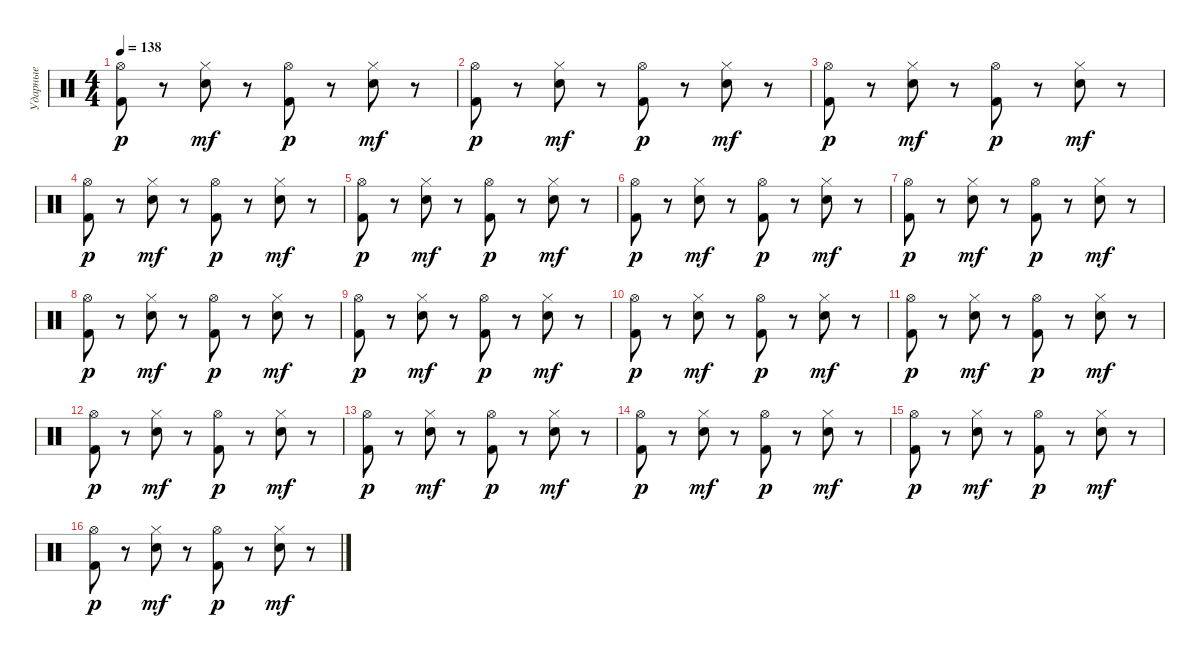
\track ("Ударные" "Ударные") {instrument percussion}
\staff {score}
\articulation defaults
\ts (4 4)
\tempo 138
\clef neutral
\ks c
("Hi-Hat (open)" "Kick (hit) 2").8{dy p} r.8 ("Hi-Hat (closed)" "Snare (hit) 2").8{dy mf} r.8 ("Hi-Hat (open)" "Kick (hit) 2").8{dy p} r.8 ("Hi-Hat (closed)" "Snare (hit) 2").8{dy mf} r.8 |
("Hi-Hat (open)" "Kick (hit) 2").8{dy p} r.8 ("Hi-Hat (closed)" "Snare (hit) 2").8{dy mf} r.8 ("Hi-Hat (open)" "Kick (hit) 2").8{dy p} r.8 ("Hi-Hat (closed)" "Snare (hit) 2").8{dy mf} r.8 |
("Hi-Hat (open)" "Kick (hit) 2").8{dy p} r.8 ("Hi-Hat (closed)" "Snare (hit) 2").8{dy mf} r.8 ("Hi-Hat (open)" "Kick (hit) 2").8{dy p} r.8 ("Hi-Hat (closed)" "Snare (hit) 2").8{dy mf} r.8 |
("Hi-Hat (open)" "Kick (hit) 2").8{dy p} r.8 ("Hi-Hat (closed)" "Snare (hit) 2").8{dy mf} r.8 ("Hi-Hat (open)" "Kick (hit) 2").8{dy p} r.8 ("Hi-Hat (closed)" "Snare (hit) 2").8{dy mf} r.8 |
("Hi-Hat (open)" "Kick (hit) 2").8{dy p} r.8 ("Hi-Hat (closed)" "Snare (hit) 2").8{dy mf} r.8 ("Hi-Hat (open)" "Kick (hit) 2").8{dy p} r.8 ("Hi-Hat (closed)" "Snare (hit) 2").8{dy mf} r.8 |
("Hi-Hat (open)" "Kick (hit) 2").8{dy p} r.8 ("Hi-Hat (closed)" "Snare (hit) 2").8{dy mf} r.8 ("Hi-Hat (open)" "Kick (hit) 2").8{dy p} r.8 ("Hi-Hat (closed)" "Snare (hit) 2").8{dy mf} r.8 |
("Hi-Hat (open)" "Kick (hit) 2").8{dy p} r.8 ("Hi-Hat (closed)" "Snare (hit) 2").8{dy mf} r.8 ("Hi-Hat (open)" "Kick (hit) 2").8{dy p} r.8 ("Hi-Hat (closed)" "Snare (hit) 2").8{dy mf} r.8 |
("Hi-Hat (open)" "Kick (hit) 2").8{dy p} r.8 ("Hi-Hat (closed)" "Snare (hit) 2").8{dy mf} r.8 ("Hi-Hat (open)" "Kick (hit) 2").8{dy p} r.8 ("Hi-Hat (closed)" "Snare (hit) 2").8{dy mf} r.8 |
("Hi-Hat (open)" "Kick (hit) 2").8{dy p} r.8 ("Hi-Hat (closed)" "Snare (hit) 2").8{dy mf} r.8 ("Hi-Hat (open)" "Kick (hit) 2").8{dy p} r.8 ("Hi-Hat (closed)" "Snare (hit) 2").8{dy mf} r.8 |
("Hi-Hat (open)" "Kick (hit) 2").8{dy p} r.8 ("Hi-Hat (closed)" "Snare (hit) 2").8{dy mf} r.8 ("Hi-Hat (open)" "Kick (hit) 2").8{dy p} r.8 ("Hi-Hat (closed)" "Snare (hit) 2").8{dy mf} r.8 |
("Hi-Hat (open)" "Kick (hit) 2").8{dy p} r.8 ("Hi-Hat (closed)" "Snare (hit) 2").8{dy mf} r.8 ("Hi-Hat (open)" "Kick (hit) 2").8{dy p} r.8 ("Hi-Hat (closed)" "Snare (hit) 2").8{dy mf} r.8 |
("Hi-Hat (open)" "Kick (hit) 2").8{dy p} r.8 ("Hi-Hat (closed)" "Snare (hit) 2").8{dy mf} r.8 ("Hi-Hat (open)" "Kick (hit) 2").8{dy p} r.8 ("Hi-Hat (closed)" "Snare (hit) 2").8{dy mf} r.8 |
("Hi-Hat (open)" "Kick (hit) 2").8{dy p} r.8 ("Hi-Hat (closed)" "Snare (hit) 2").8{dy mf} r.8 ("Hi-Hat (open)" "Kick (hit) 2").8{dy p} r.8 ("Hi-Hat (closed)" "Snare (hit) 2").8{dy mf} r.8 |
("Hi-Hat (open)" "Kick (hit) 2").8{dy p} r.8 ("Hi-Hat (closed)" "Snare (hit) 2").8{dy mf} r.8 ("Hi-Hat (open)" "Kick (hit) 2").8{dy p} r.8 ("Hi-Hat (closed)" "Snare (hit) 2").8{dy mf} r.8 |
("Hi-Hat (open)" "Kick (hit) 2").8{dy p} r.8 ("Hi-Hat (closed)" "Snare (hit) 2").8{dy mf} r.8 ("Hi-Hat (open)" "Kick (hit) 2").8{dy p} r.8 ("Hi-Hat (closed)" "Snare (hit) 2").8{dy mf} r.8 |
("Hi-Hat (open)" "Kick (hit) 2").8{dy p} r.8 ("Hi-Hat (closed)" "Snare (hit) 2").8{dy mf} r.8 ("Hi-Hat (open)" "Kick (hit) 2").8{dy p} r.8 ("Hi-Hat (closed)" "Snare (hit) 2").8{dy mf} r.8
